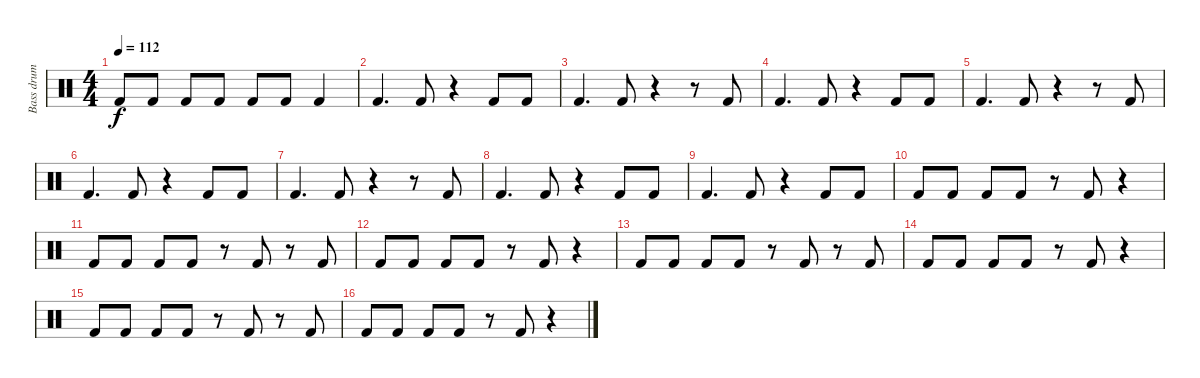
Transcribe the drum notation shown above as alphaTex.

\track ("Bass drum" "Bass drum") {instrument percussion}
\staff {score}
\articulation defaults
\ts (4 4)
\tempo 112
\clef neutral
\ks c "Kick (hit) 2".8{dy f} "Kick (hit) 2".8 "Kick (hit) 2".8 "Kick (hit) 2".8 "Kick (hit) 2".8 "Kick (hit) 2".8 "Kick (hit) 2".4
|
"Kick (hit) 2".4{d} "Kick (hit) 2".8 r.4 "Kick (hit) 2".8 "Kick (hit) 2".8 |
"Kick (hit) 2".4{d} "Kick (hit) 2".8 r.4 r.8 "Kick (hit) 2".8 |
"Kick (hit) 2".4{d} "Kick (hit) 2".8 r.4 "Kick (hit) 2".8 "Kick (hit) 2".8 |
"Kick (hit) 2".4{d} "Kick (hit) 2".8 r.4 r.8 "Kick (hit) 2".8 |
"Kick (hit) 2".4{d} "Kick (hit) 2".8 r.4 "Kick (hit) 2".8 "Kick (hit) 2".8 |
"Kick (hit) 2".4{d} "Kick (hit) 2".8 r.4 r.8 "Kick (hit) 2".8 |
"Kick (hit) 2".4{d} "Kick (hit) 2".8 r.4 "Kick (hit) 2".8 "Kick (hit) 2".8 |
"Kick (hit) 2".4{d} "Kick (hit) 2".8 r.4 "Kick (hit) 2".8 "Kick (hit) 2".8 |
"Kick (hit) 2".8 "Kick (hit) 2".8 "Kick (hit) 2".8 "Kick (hit) 2".8 r.8 "Kick (hit) 2".8 r.4 |
"Kick (hit) 2".8 "Kick (hit) 2".8 "Kick (hit) 2".8 "Kick (hit) 2".8 r.8 "Kick (hit) 2".8 r.8 "Kick (hit) 2".8 |
"Kick (hit) 2".8 "Kick (hit) 2".8 "Kick (hit) 2".8 "Kick (hit) 2".8 r.8 "Kick (hit) 2".8 r.4 |
"Kick (hit) 2".8 "Kick (hit) 2".8 "Kick (hit) 2".8 "Kick (hit) 2".8 r.8 "Kick (hit) 2".8 r.8 "Kick (hit) 2".8 |
"Kick (hit) 2".8 "Kick (hit) 2".8 "Kick (hit) 2".8 "Kick (hit) 2".8 r.8 "Kick (hit) 2".8 r.4 |
"Kick (hit) 2".8 "Kick (hit) 2".8 "Kick (hit) 2".8 "Kick (hit) 2".8 r.8 "Kick (hit) 2".8 r.8 "Kick (hit) 2".8 |
"Kick (hit) 2".8 "Kick (hit) 2".8 "Kick (hit) 2".8 "Kick (hit) 2".8 r.8 "Kick (hit) 2".8 r.4
